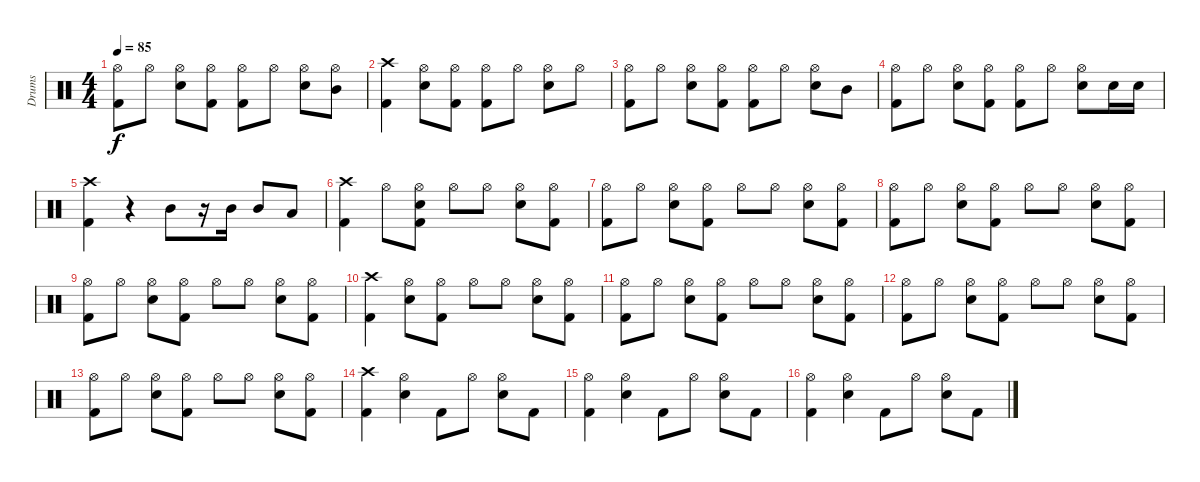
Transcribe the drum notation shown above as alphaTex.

\track ("Drums" "Drums") {instrument percussion}
\staff {score}
\articulation defaults
\ts (4 4)
\tempo 85
\clef neutral
\ks c
("Hi-Hat (open)" "Kick (hit) 2").8{dy f} "Hi-Hat (open)".8 ("Hi-Hat (open)" "Snare (hit) 2").8 ("Hi-Hat (open)" "Kick (hit) 2").8 ("Hi-Hat (open)" "Kick (hit) 2").8 "Hi-Hat (open)".8 ("Hi-Hat (open)" "Snare (hit) 2").8 ("Hi-Hat (open)" "Mid Tom (hit)").8 |
("Crash high (hit)" "Kick (hit) 2").4 ("Hi-Hat (open)" "Snare (hit) 2").8 ("Hi-Hat (open)" "Kick (hit) 2").8 ("Hi-Hat (open)" "Kick (hit) 2").8 "Hi-Hat (open)".8 ("Hi-Hat (open)" "Snare (hit) 2").8 "Hi-Hat (open)".8 |
("Hi-Hat (open)" "Kick (hit) 2").8 "Hi-Hat (open)".8 ("Hi-Hat (open)" "Snare (hit) 2").8 ("Hi-Hat (open)" "Kick (hit) 2").8 ("Hi-Hat (open)" "Kick (hit) 2").8 "Hi-Hat (open)".8 ("Hi-Hat (open)" "Snare (hit) 2").8 "Mid Tom (hit)".8 |
("Hi-Hat (open)" "Kick (hit) 2").8 "Hi-Hat (open)".8 ("Hi-Hat (open)" "Snare (hit) 2").8 ("Hi-Hat (open)" "Kick (hit) 2").8 ("Hi-Hat (open)" "Kick (hit) 2").8 "Hi-Hat (open)".8 ("Hi-Hat (open)" "Snare (hit) 2").8 "Snare (hit) 2".16 "Snare (hit) 2".16 |
("Crash high (hit)" "Kick (hit) 2").4 r.4 "Mid Tom (hit)".8 r.16 "Mid Tom (hit)".16 "Mid Tom (hit)".8 "Low Tom (hit)".8 |
("Crash high (hit)" "Kick (hit) 2").4 "Hi-Hat (open)".8 ("Hi-Hat (open)" "Snare (hit) 2" "Kick (hit) 2").8 "Hi-Hat (open)".8 "Hi-Hat (open)".8 ("Hi-Hat (open)" "Snare (hit) 2").8 ("Hi-Hat (open)" "Kick (hit) 2").8 |
("Hi-Hat (open)" "Kick (hit) 2").8 "Hi-Hat (open)".8 ("Hi-Hat (open)" "Snare (hit) 2").8 ("Hi-Hat (open)" "Kick (hit) 2").8 "Hi-Hat (open)".8 "Hi-Hat (open)".8 ("Hi-Hat (open)" "Snare (hit) 2").8 ("Hi-Hat (open)" "Kick (hit) 2").8 |
("Hi-Hat (open)" "Kick (hit) 2").8 "Hi-Hat (open)".8 ("Hi-Hat (open)" "Snare (hit) 2").8 ("Hi-Hat (open)" "Kick (hit) 2").8 "Hi-Hat (open)".8 "Hi-Hat (open)".8 ("Hi-Hat (open)" "Snare (hit) 2").8 ("Hi-Hat (open)" "Kick (hit) 2").8 |
("Hi-Hat (open)" "Kick (hit) 2").8 "Hi-Hat (open)".8 ("Hi-Hat (open)" "Snare (hit) 2").8 ("Hi-Hat (open)" "Kick (hit) 2").8 "Hi-Hat (open)".8 "Hi-Hat (open)".8 ("Hi-Hat (open)" "Snare (hit) 2").8 ("Hi-Hat (open)" "Kick (hit) 2").8 |
("Crash high (hit)" "Kick (hit) 2").4 ("Hi-Hat (open)" "Snare (hit) 2").8 ("Hi-Hat (open)" "Kick (hit) 2").8 "Hi-Hat (open)".8 "Hi-Hat (open)".8 ("Hi-Hat (open)" "Snare (hit) 2").8 ("Hi-Hat (open)" "Kick (hit) 2").8 |
("Hi-Hat (open)" "Kick (hit) 2").8 "Hi-Hat (open)".8 ("Hi-Hat (open)" "Snare (hit) 2").8 ("Hi-Hat (open)" "Kick (hit) 2").8 "Hi-Hat (open)".8 "Hi-Hat (open)".8 ("Hi-Hat (open)" "Snare (hit) 2").8 ("Hi-Hat (open)" "Kick (hit) 2").8 |
("Hi-Hat (open)" "Kick (hit) 2").8 "Hi-Hat (open)".8 ("Hi-Hat (open)" "Snare (hit) 2").8 ("Hi-Hat (open)" "Kick (hit) 2").8 "Hi-Hat (open)".8 "Hi-Hat (open)".8 ("Hi-Hat (open)" "Snare (hit) 2").8 ("Hi-Hat (open)" "Kick (hit) 2").8 |
("Hi-Hat (open)" "Kick (hit) 2").8 "Hi-Hat (open)".8 ("Hi-Hat (open)" "Snare (hit) 2").8 ("Hi-Hat (open)" "Kick (hit) 2").8 "Hi-Hat (open)".8 "Hi-Hat (open)".8 ("Hi-Hat (open)" "Snare (hit) 2").8 ("Hi-Hat (open)" "Kick (hit) 2").8 |
("Crash high (hit)" "Kick (hit) 2").4 ("Hi-Hat (open)" "Snare (hit) 2").4 "Kick (hit) 2".8 "Hi-Hat (open)".8 ("Hi-Hat (open)" "Snare (hit) 2").8 "Kick (hit) 2".8 |
("Hi-Hat (open)" "Kick (hit) 2").4 ("Hi-Hat (open)" "Snare (hit) 2").4 "Kick (hit) 2".8 "Hi-Hat (open)".8 ("Hi-Hat (open)" "Snare (hit) 2").8 "Kick (hit) 2".8 |
("Hi-Hat (open)" "Kick (hit) 2").4 ("Hi-Hat (open)" "Snare (hit) 2").4 "Kick (hit) 2".8 "Hi-Hat (open)".8 ("Hi-Hat (open)" "Snare (hit) 2").8 "Kick (hit) 2".8
